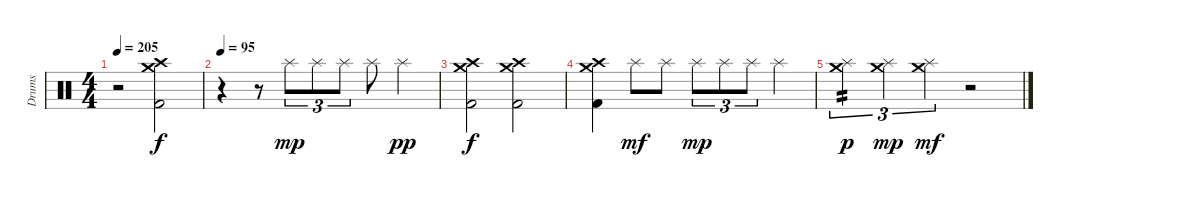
\track ("Drums" "Drums") {instrument percussion}
\staff {score}
\articulation defaults
\ts (4 4)
\tempo 205
\clef neutral
\ks c
r.2{dy f} ("Crash medium (hit)" "Crash high (hit)" "Kick (hit) 2").2 |
\tempo 95
r.4 r.8 "Splash (hit)".8{tu (3 2) dy mp} "Splash (hit)".8{tu (3 2)} "Splash (hit)".8{tu (3 2)} "Splash (hit)".8 "Splash (hit)".4{dy pp} |
("Crash medium (hit)" "Crash high (hit)" "Kick (hit) 2").2{dy f} ("Crash medium (hit)" "Crash high (hit)" "Kick (hit) 2").2 |
("Crash medium (hit)" "Crash high (hit)" "Kick (hit) 2").4 "Splash (hit)".8{dy mf} "Splash (hit)".8 "Splash (hit)".8{tu (3 2) dy mp} "Splash (hit)".8{tu (3 2)} "Splash (hit)".8{tu (3 2)} "Splash (hit)".4 |
("Splash (hit)" "Crash medium (hit)").4{tu (3 2) tp 2 dy p} ("Splash (hit)" "Crash medium (hit)").4{tu (3 2) dy mp} ("Splash (hit)" "Crash medium (hit)").4{tu (3 2) dy mf} r.2
